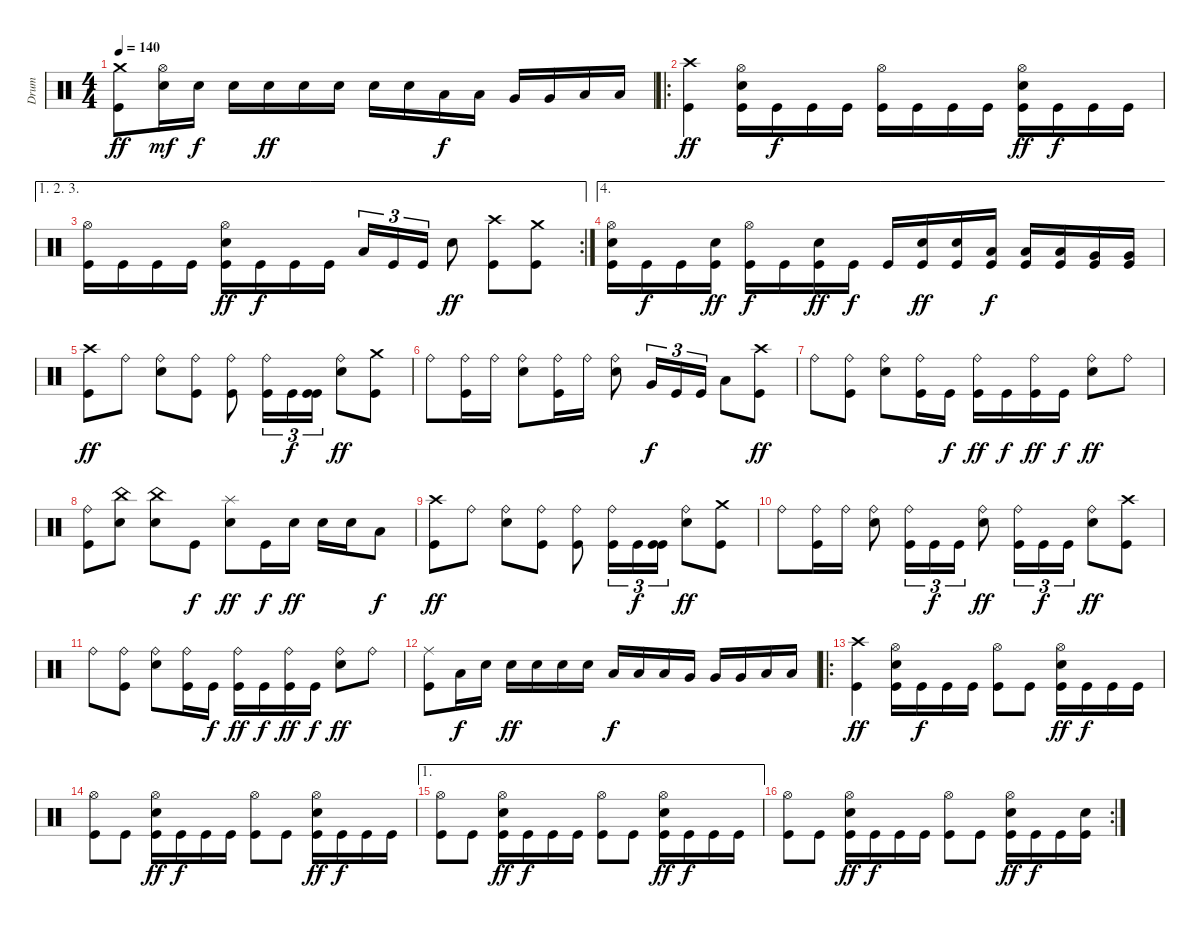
\track ("Drum" "Drum") {instrument percussion}
\staff {score}
\articulation defaults
\ts (4 4)
\tempo 140
\clef neutral
\ks c
("Kick (hit)" "Crash medium (hit)").8{dy ff} ("Electric Snare (hit)" "Hi-Hat (open)").16{dy mf} "Electric Snare (hit)".16{dy f} "Electric Snare (hit)".16 "Electric Snare (hit)".16{dy ff} "Electric Snare (hit)".16 "Electric Snare (hit)".16 "Electric Snare (hit)".16 "Electric Snare (hit)".16 "Low Tom (hit)".16{dy f} "Low Tom (hit)".16 "Very Low Tom (hit)".16 "Very Low Tom (hit)".16 "Low Floor Tom (hit)".16 "Low Floor Tom (hit)".16 |
\ro
("Kick (hit)" "Crash high (hit)").4{dy ff} ("Kick (hit)" "Electric Snare (hit)" "Hi-Hat (open)").16 "Kick (hit)".16{dy f} "Kick (hit)".16 "Kick (hit)".16 ("Kick (hit)" "Hi-Hat (open)").16 "Kick (hit)".16 "Kick (hit)".16 "Kick (hit)".16 ("Kick (hit)" "Electric Snare (hit)" "Hi-Hat (open)").16{dy ff} "Kick (hit)".16{dy f} "Kick (hit)".16 "Kick (hit)".16 |
\ae (1 2 3)
\rc 2
("Kick (hit)" "Hi-Hat (open)").16 "Kick (hit)".16 "Kick (hit)".16 "Kick (hit)".16 ("Kick (hit)" "Electric Snare (hit)" "Hi-Hat (open)").16{dy ff} "Kick (hit)".16{dy f} "Kick (hit)".16 "Kick (hit)".16 "Low Floor Tom (hit)".16{tu (3 2)} "Kick (hit)".16{tu (3 2)} "Kick (hit)".16{tu (3 2)} "Electric Snare (hit)".8{dy ff} ("Kick (hit)" "Crash high (hit)").8 ("Kick (hit)" "Crash medium (hit)").8 |
\ae 4
("Kick (hit)" "Electric Snare (hit)" "Hi-Hat (open)").16 "Kick (hit)".16{dy f} "Kick (hit)".16 ("Kick (hit)" "Electric Snare (hit)").16{dy ff} ("Kick (hit)" "Hi-Hat (open)").16{dy f} "Kick (hit)".16 ("Kick (hit)" "Electric Snare (hit)").16{dy ff} "Kick (hit)".16{dy f} "Kick (hit)".16 ("Kick (hit)" "Electric Snare (hit)").16{dy ff} ("Kick (hit)" "Electric Snare (hit)").16 ("Kick (hit)" "Low Tom (hit)").16{dy f} ("Kick (hit)" "Low Tom (hit)").16 ("Kick (hit)" "Low Tom (hit)").16 ("Kick (hit)" "Very Low Tom (hit)").16 ("Kick (hit)" "Very Low Tom (hit)").16 |
("Kick (hit)" "Crash high (hit)").8{dy ff} "Ride (bell)".8 ("Electric Snare (hit)" "Ride (bell)").8 ("Kick (hit)" "Ride (bell)").8 ("Kick (hit)" "Ride (bell)").8 ("Kick (hit)" "Ride (bell)").16{tu (3 2)} "Kick (hit)".16{tu (3 2) dy f} ("Kick (hit)" "Kick (hit)").16{tu (3 2)} ("Electric Snare (hit)" "Ride (bell)").8{dy ff} ("Kick (hit)" "Crash medium (hit)").8 |
"Ride (bell)".8 ("Kick (hit)" "Ride (bell)").16 "Ride (bell)".16 ("Electric Snare (hit)" "Ride (bell)").8 ("Kick (hit)" "Ride (bell)").16 "Ride (bell)".16 ("Electric Snare (hit)" "Ride (bell)").8 "Very Low Tom (hit)".16{tu (3 2) dy f} "Kick (hit)".16{tu (3 2)} "Kick (hit)".16{tu (3 2)} "Low Floor Tom (hit)".8 ("Kick (hit)" "Crash high (hit)").8{dy ff} |
"Ride (bell)".8 ("Kick (hit)" "Ride (bell)").8 ("Electric Snare (hit)" "Ride (bell)").8 ("Kick (hit)" "Ride (bell)").16 "Kick (hit)".16{dy f} ("Kick (hit)" "Ride (bell)").16{dy ff} "Kick (hit)".16{dy f} ("Kick (hit)" "Ride (bell)").16{dy ff} "Kick (hit)".16{dy f} ("Electric Snare (hit)" "Ride (bell)").8{dy ff} "Ride (bell)".8 |
("Kick (hit)" "Ride (bell)").8 ("Electric Snare (hit)" "China (hit)").8 ("Electric Snare (hit)" "China (hit)").8 "Kick (hit)".8{dy f} ("Electric Snare (hit)" "Splash (hit)").8{dy ff} "Kick (hit)".16{dy f} "Electric Snare (hit)".16{dy ff} "Electric Snare (hit)".16 "Electric Snare (hit)".16 "Low Tom (hit)".8{dy f} |
("Kick (hit)" "Crash high (hit)").8{dy ff} "Ride (bell)".8 ("Electric Snare (hit)" "Ride (bell)").8 ("Kick (hit)" "Ride (bell)").8 ("Kick (hit)" "Ride (bell)").8 ("Kick (hit)" "Ride (bell)").16{tu (3 2)} "Kick (hit)".16{tu (3 2) dy f} ("Kick (hit)" "Kick (hit)").16{tu (3 2)} ("Electric Snare (hit)" "Ride (bell)").8{dy ff} ("Kick (hit)" "Crash medium (hit)").8 |
"Ride (bell)".8 ("Kick (hit)" "Ride (bell)").16 "Ride (bell)".16 ("Electric Snare (hit)" "Ride (bell)").8 ("Kick (hit)" "Ride (bell)").16{tu (3 2)} "Kick (hit)".16{tu (3 2) dy f} "Kick (hit)".16{tu (3 2)} ("Electric Snare (hit)" "Ride (bell)").8{dy ff} ("Kick (hit)" "Ride (bell)").16{tu (3 2)} "Kick (hit)".16{tu (3 2) dy f} "Kick (hit)".16{tu (3 2)} ("Electric Snare (hit)" "Ride (bell)").8{dy ff} ("Kick (hit)" "Crash high (hit)").8 |
"Ride (bell)".8 ("Kick (hit)" "Ride (bell)").8 ("Electric Snare (hit)" "Ride (bell)").8 ("Kick (hit)" "Ride (bell)").16 "Kick (hit)".16{dy f} ("Kick (hit)" "Ride (bell)").16{dy ff} "Kick (hit)".16{dy f} ("Kick (hit)" "Ride (bell)").16{dy ff} "Kick (hit)".16{dy f} ("Electric Snare (hit)" "Ride (bell)").8{dy ff} "Ride (bell)".8 |
("Kick (hit)" "Ride (middle)").8 "Low Tom (hit)".16{dy f} "Electric Snare (hit)".16 "Electric Snare (hit)".16{dy ff} "Electric Snare (hit)".16 "Electric Snare (hit)".16 "Electric Snare (hit)".16 "Low Tom (hit)".16{dy f} "Low Tom (hit)".16 "Low Tom (hit)".16 "Very Low Tom (hit)".16 "Very Low Tom (hit)".16 "Very Low Tom (hit)".16 "Low Floor Tom (hit)".16 "Low Floor Tom (hit)".16 |
\ro
("Kick (hit)" "Crash high (hit)").4{dy ff} ("Kick (hit)" "Electric Snare (hit)" "Hi-Hat (open)").16 "Kick (hit)".16{dy f} "Kick (hit)".16 "Kick (hit)".16 ("Kick (hit)" "Hi-Hat (open)").8 "Kick (hit)".8 ("Kick (hit)" "Electric Snare (hit)" "Hi-Hat (open)").16{dy ff} "Kick (hit)".16{dy f} "Kick (hit)".16 "Kick (hit)".16 |
("Kick (hit)" "Hi-Hat (open)").8 "Kick (hit)".8 ("Kick (hit)" "Electric Snare (hit)" "Hi-Hat (open)").16{dy ff} "Kick (hit)".16{dy f} "Kick (hit)".16 "Kick (hit)".16 ("Kick (hit)" "Hi-Hat (open)").8 "Kick (hit)".8 ("Kick (hit)" "Electric Snare (hit)" "Hi-Hat (open)").16{dy ff} "Kick (hit)".16{dy f} "Kick (hit)".16 "Kick (hit)".16 |
\ae 1
("Kick (hit)" "Hi-Hat (open)").8 "Kick (hit)".8 ("Kick (hit)" "Electric Snare (hit)" "Hi-Hat (open)").16{dy ff} "Kick (hit)".16{dy f} "Kick (hit)".16 "Kick (hit)".16 ("Kick (hit)" "Hi-Hat (open)").8 "Kick (hit)".8 ("Kick (hit)" "Electric Snare (hit)" "Hi-Hat (open)").16{dy ff} "Kick (hit)".16{dy f} "Kick (hit)".16 "Kick (hit)".16 |
\rc 2
("Kick (hit)" "Hi-Hat (open)").8 "Kick (hit)".8 ("Kick (hit)" "Electric Snare (hit)" "Hi-Hat (open)").16{dy ff} "Kick (hit)".16{dy f} "Kick (hit)".16 "Kick (hit)".16 ("Kick (hit)" "Hi-Hat (open)").8 "Kick (hit)".8 ("Kick (hit)" "Electric Snare (hit)" "Hi-Hat (open)").16{dy ff} "Kick (hit)".16{dy f} "Kick (hit)".16 ("Kick (hit)" "Electric Snare (hit)").16
